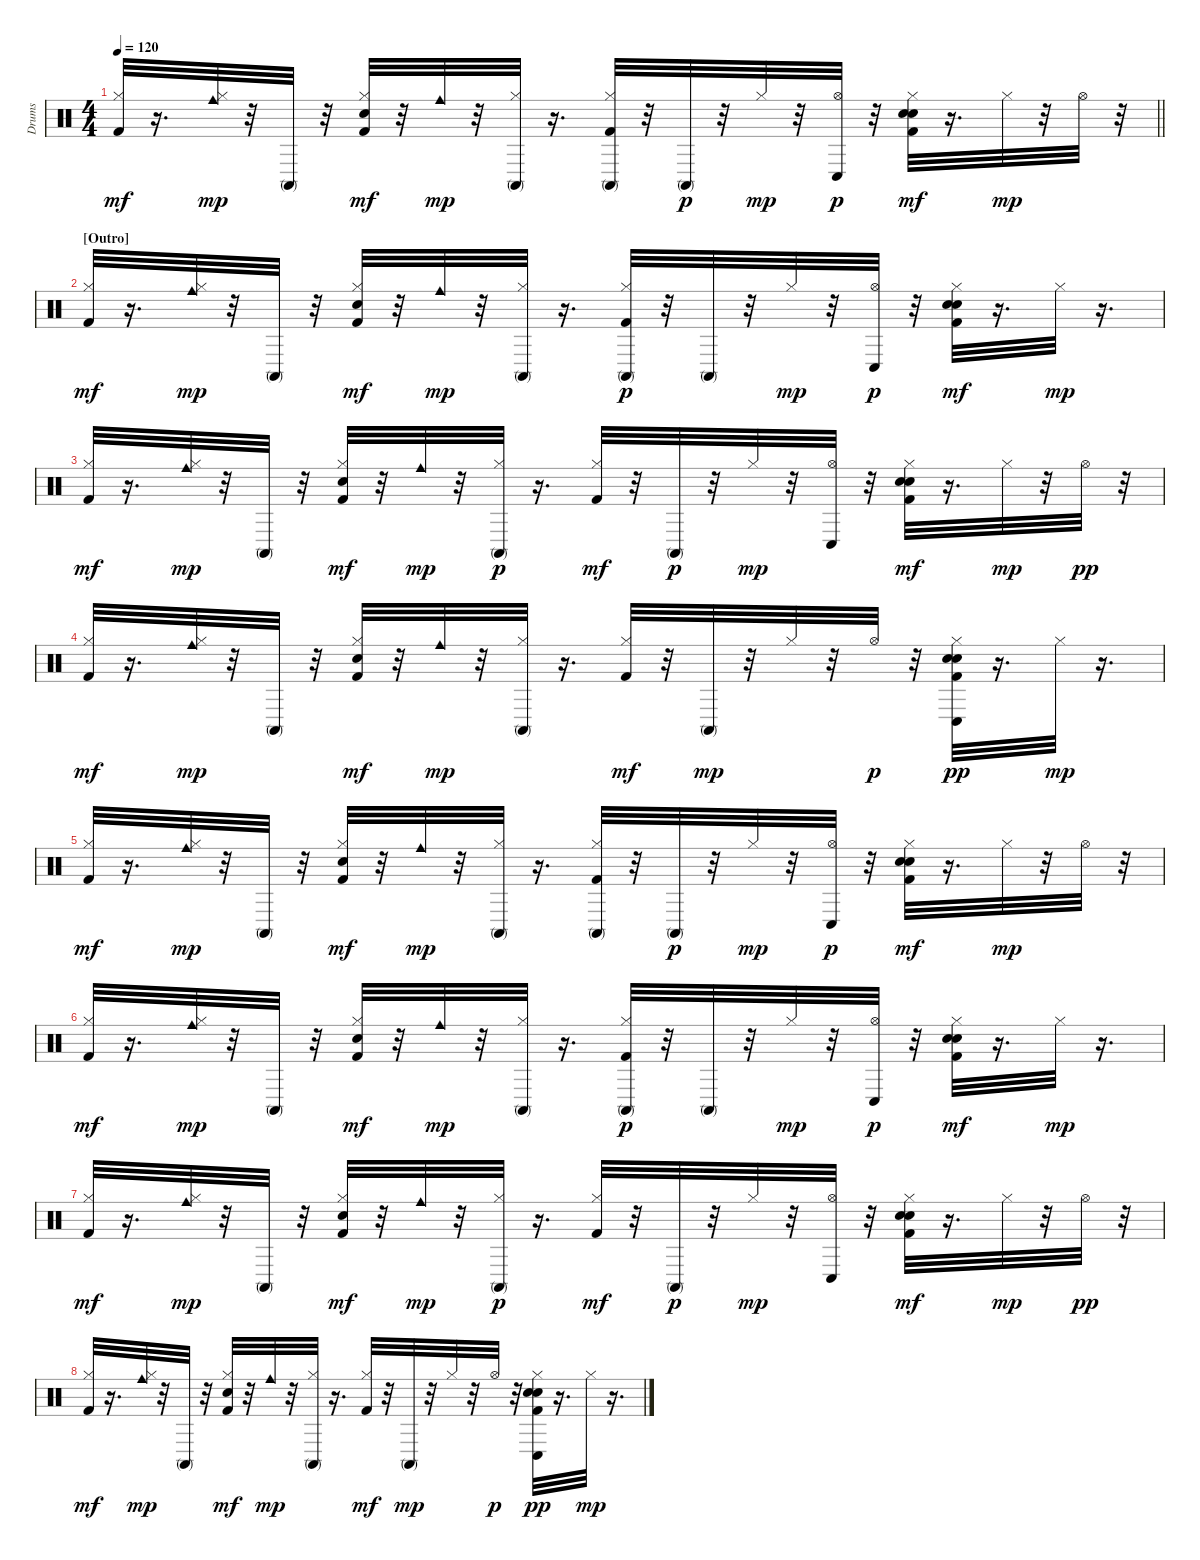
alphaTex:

\track ("Drums" "Drums") {instrument percussion}
\staff {score}
\articulation defaults
\ts (4 4)
\tempo 120
\clef neutral
\barLineRight lightlight
\ks c
("Hi-Hat (closed)" "Kick (hit) 2").32{dy mf} r.16{d} ("Hi-Hat (closed)" "Cowbell medium (hit)").32{dy mp} r.32 "Conga high (mute)".32 r.32 ("Hi-Hat (closed)" "Electric Snare (hit)" "Kick (hit) 2").32{dy mf} r.32 "Cowbell medium (hit)".32{dy mp} r.32 ("Hi-Hat (closed)" "Conga high (mute)").32 r.16{d} ("Hi-Hat (closed)" "Kick (hit) 2" "Conga high (mute)").32 r.32 "Conga high (mute)".32{dy p} r.32 "Hi-Hat (closed)".32{dy mp} r.32 ("Hi-Hat (open)" "Conga low (hit)").32{dy p} r.32 ("Kick (hit) 2" "Hi-Hat (closed)" "Electric Snare (hit)" "Hand Clap (hit)").32{dy mf} r.16{d} "Hi-Hat (closed)".32{dy mp} r.32 "Hi-Hat (open)".32 r.32 |
\section ("" "[Outro]")
("Hi-Hat (closed)" "Kick (hit) 2").32{dy mf} r.16{d} ("Hi-Hat (closed)" "Cowbell medium (hit)").32{dy mp} r.32 "Conga high (mute)".32 r.32 ("Hi-Hat (closed)" "Electric Snare (hit)" "Kick (hit) 2").32{dy mf} r.32 "Cowbell medium (hit)".32{dy mp} r.32 ("Hi-Hat (closed)" "Conga high (mute)").32 r.16{d} ("Kick (hit) 2" "Hi-Hat (closed)" "Conga high (mute)").32{dy p} r.32 "Conga high (mute)".32 r.32 "Hi-Hat (closed)".32{dy mp} r.32 ("Hi-Hat (open)" "Conga low (hit)").32{dy p} r.32 ("Hi-Hat (closed)" "Hand Clap (hit)" "Electric Snare (hit)" "Kick (hit) 2").32{dy mf} r.16{d} "Hi-Hat (closed)".32{dy mp} r.16{d} |
("Hi-Hat (closed)" "Kick (hit) 2").32{dy mf} r.16{d} ("Hi-Hat (closed)" "Cowbell medium (hit)").32{dy mp} r.32 "Conga high (mute)".32 r.32 ("Hi-Hat (closed)" "Electric Snare (hit)" "Kick (hit) 2").32{dy mf} r.32 "Cowbell medium (hit)".32{dy mp} r.32 ("Hi-Hat (closed)" "Conga high (mute)").32{dy p} r.16{d} ("Hi-Hat (closed)" "Kick (hit) 2").32{dy mf} r.32 "Conga high (mute)".32{dy p} r.32 "Hi-Hat (closed)".32{dy mp} r.32 ("Hi-Hat (open)" "Conga low (hit)").32 r.32 ("Kick (hit) 2" "Hi-Hat (closed)" "Electric Snare (hit)" "Hand Clap (hit)").32{dy mf} r.16{d} "Hi-Hat (closed)".32{dy mp} r.32 "Hi-Hat (open)".32{dy pp} r.32 |
("Hi-Hat (closed)" "Kick (hit) 2").32{dy mf} r.16{d} ("Hi-Hat (closed)" "Cowbell medium (hit)").32{dy mp} r.32 "Conga high (mute)".32 r.32 ("Hi-Hat (closed)" "Electric Snare (hit)" "Kick (hit) 2").32{dy mf} r.32 "Cowbell medium (hit)".32{dy mp} r.32 ("Hi-Hat (closed)" "Conga high (mute)").32 r.16{d} ("Hi-Hat (closed)" "Kick (hit) 2").32{dy mf} r.32 "Conga high (mute)".32{dy mp} r.32 "Hi-Hat (closed)".32 r.32 "Hi-Hat (open)".32{dy p} r.32 ("Hi-Hat (closed)" "Kick (hit) 2" "Hand Clap (hit)" "Electric Snare (hit)" "Conga low (hit)").32{dy pp} r.16{d} "Hi-Hat (closed)".32{dy mp} r.16{d} |
("Hi-Hat (closed)" "Kick (hit) 2").32{dy mf} r.16{d} ("Hi-Hat (closed)" "Cowbell medium (hit)").32{dy mp} r.32 "Conga high (mute)".32 r.32 ("Hi-Hat (closed)" "Electric Snare (hit)" "Kick (hit) 2").32{dy mf} r.32 "Cowbell medium (hit)".32{dy mp} r.32 ("Hi-Hat (closed)" "Conga high (mute)").32 r.16{d} ("Hi-Hat (closed)" "Kick (hit) 2" "Conga high (mute)").32 r.32 "Conga high (mute)".32{dy p} r.32 "Hi-Hat (closed)".32{dy mp} r.32 ("Hi-Hat (open)" "Conga low (hit)").32{dy p} r.32 ("Kick (hit) 2" "Hi-Hat (closed)" "Electric Snare (hit)" "Hand Clap (hit)").32{dy mf} r.16{d} "Hi-Hat (closed)".32{dy mp} r.32 "Hi-Hat (open)".32 r.32 |
("Hi-Hat (closed)" "Kick (hit) 2").32{dy mf} r.16{d} ("Hi-Hat (closed)" "Cowbell medium (hit)").32{dy mp} r.32 "Conga high (mute)".32 r.32 ("Hi-Hat (closed)" "Electric Snare (hit)" "Kick (hit) 2").32{dy mf} r.32 "Cowbell medium (hit)".32{dy mp} r.32 ("Hi-Hat (closed)" "Conga high (mute)").32 r.16{d} ("Kick (hit) 2" "Hi-Hat (closed)" "Conga high (mute)").32{dy p} r.32 "Conga high (mute)".32 r.32 "Hi-Hat (closed)".32{dy mp} r.32 ("Hi-Hat (open)" "Conga low (hit)").32{dy p} r.32 ("Hi-Hat (closed)" "Hand Clap (hit)" "Electric Snare (hit)" "Kick (hit) 2").32{dy mf} r.16{d} "Hi-Hat (closed)".32{dy mp} r.16{d} |
("Hi-Hat (closed)" "Kick (hit) 2").32{dy mf} r.16{d} ("Hi-Hat (closed)" "Cowbell medium (hit)").32{dy mp} r.32 "Conga high (mute)".32 r.32 ("Hi-Hat (closed)" "Electric Snare (hit)" "Kick (hit) 2").32{dy mf} r.32 "Cowbell medium (hit)".32{dy mp} r.32 ("Hi-Hat (closed)" "Conga high (mute)").32{dy p} r.16{d} ("Hi-Hat (closed)" "Kick (hit) 2").32{dy mf} r.32 "Conga high (mute)".32{dy p} r.32 "Hi-Hat (closed)".32{dy mp} r.32 ("Hi-Hat (open)" "Conga low (hit)").32 r.32 ("Kick (hit) 2" "Hi-Hat (closed)" "Electric Snare (hit)" "Hand Clap (hit)").32{dy mf} r.16{d} "Hi-Hat (closed)".32{dy mp} r.32 "Hi-Hat (open)".32{dy pp} r.32 |
("Hi-Hat (closed)" "Kick (hit) 2").32{dy mf} r.16{d} ("Hi-Hat (closed)" "Cowbell medium (hit)").32{dy mp} r.32 "Conga high (mute)".32 r.32 ("Hi-Hat (closed)" "Electric Snare (hit)" "Kick (hit) 2").32{dy mf} r.32 "Cowbell medium (hit)".32{dy mp} r.32 ("Hi-Hat (closed)" "Conga high (mute)").32 r.16{d} ("Hi-Hat (closed)" "Kick (hit) 2").32{dy mf} r.32 "Conga high (mute)".32{dy mp} r.32 "Hi-Hat (closed)".32 r.32 "Hi-Hat (open)".32{dy p} r.32 ("Hi-Hat (closed)" "Kick (hit) 2" "Hand Clap (hit)" "Electric Snare (hit)" "Conga low (hit)").32{dy pp} r.16{d} "Hi-Hat (closed)".32{dy mp} r.16{d}
